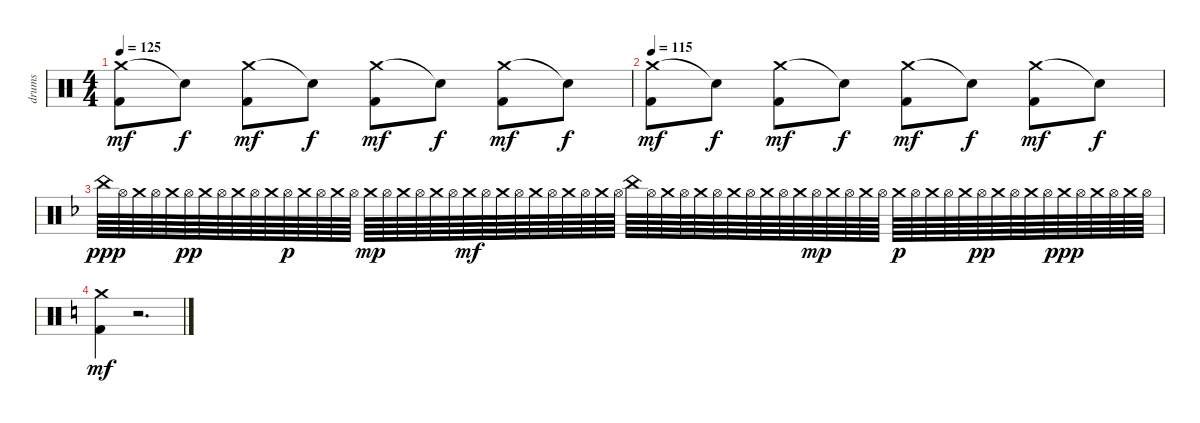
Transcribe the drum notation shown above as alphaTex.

\track ("drums" "drums") {instrument percussion}
\staff {score}
\articulation defaults
\ts (4 4)
\tempo 125
\clef neutral
\ks aminor
("Crash medium (hit)" "Kick (hit) 2").8{dy mf} "Snare (hit)"{t}.8{dy f} ("Crash medium (hit)" "Kick (hit) 2").8{dy mf} "Snare (hit)"{t}.8{dy f} ("Crash medium (hit)" "Kick (hit) 2").8{dy mf} "Snare (hit)"{t}.8{dy f} ("Crash medium (hit)" "Kick (hit) 2").8{dy mf} "Snare (hit)"{t}.8{dy f} |
\tempo 115
("Crash medium (hit)" "Kick (hit) 2").8{dy mf} "Snare (hit)"{t}.8{dy f} ("Crash medium (hit)" "Kick (hit) 2").8{dy mf} "Snare (hit)"{t}.8{dy f} ("Crash medium (hit)" "Kick (hit) 2").8{dy mf} "Snare (hit)"{t}.8{dy f} ("Crash medium (hit)" "Kick (hit) 2").8{dy mf} "Snare (hit)"{t}.8{dy f} |
\ks f "China (hit)".64{dy ppp} "Hi-Hat (open)".64 "Crash medium (hit)".64 "Hi-Hat (open)".64 "Crash medium (hit)".64 "Hi-Hat (open)".64{dy pp} "Crash medium (hit)".64 "Hi-Hat (open)".64 "Crash medium (hit)".64 "Hi-Hat (open)".64 "Crash medium (hit)".64 "Hi-Hat (open)".64{dy p} "Crash medium (hit)".64 "Hi-Hat (open)".64 "Crash medium (hit)".64 "Hi-Hat (open)".64 "Crash medium (hit)".64{dy mp} "Hi-Hat (open)".64 "Crash medium (hit)".64 "Hi-Hat (open)".64 "Crash medium (hit)".64 "Hi-Hat (open)".64 "Crash medium (hit)".64{dy mf} "Hi-Hat (open)".64 "Crash medium (hit)".64 "Hi-Hat (open)".64 "Crash medium (hit)".64 "Hi-Hat (open)".64 "Crash medium (hit)".64 "Hi-Hat (open)".64 "Crash medium (hit)".64 "Hi-Hat (open)".64 "China (hit)".64 "Hi-Hat (open)".64 "Crash medium (hit)".64 "Hi-Hat (open)".64 "Crash medium (hit)".64 "Hi-Hat (open)".64 "Crash medium (hit)".64 "Hi-Hat (open)".64 "Crash medium (hit)".64 "Hi-Hat (open)".64 "Crash medium (hit)".64 "Hi-Hat (open)".64{dy mp} "Crash medium (hit)".64 "Hi-Hat (open)".64 "Crash medium (hit)".64 "Hi-Hat (open)".64 "Crash medium (hit)".64{dy p} "Hi-Hat (open)".64 "Crash medium (hit)".64 "Hi-Hat (open)".64 "Crash medium (hit)".64 "Hi-Hat (open)".64{dy pp} "Crash medium (hit)".64 "Hi-Hat (open)".64 "Crash medium (hit)".64 "Hi-Hat (open)".64 "Crash medium (hit)".64{dy ppp} "Hi-Hat (open)".64 "Crash medium (hit)".64 "Hi-Hat (open)".64 "Crash medium (hit)".64 "Hi-Hat (open)".64
|
\ks aminor
("Crash medium (hit)" "Kick (hit) 2").4{dy mf} r.2{d}
